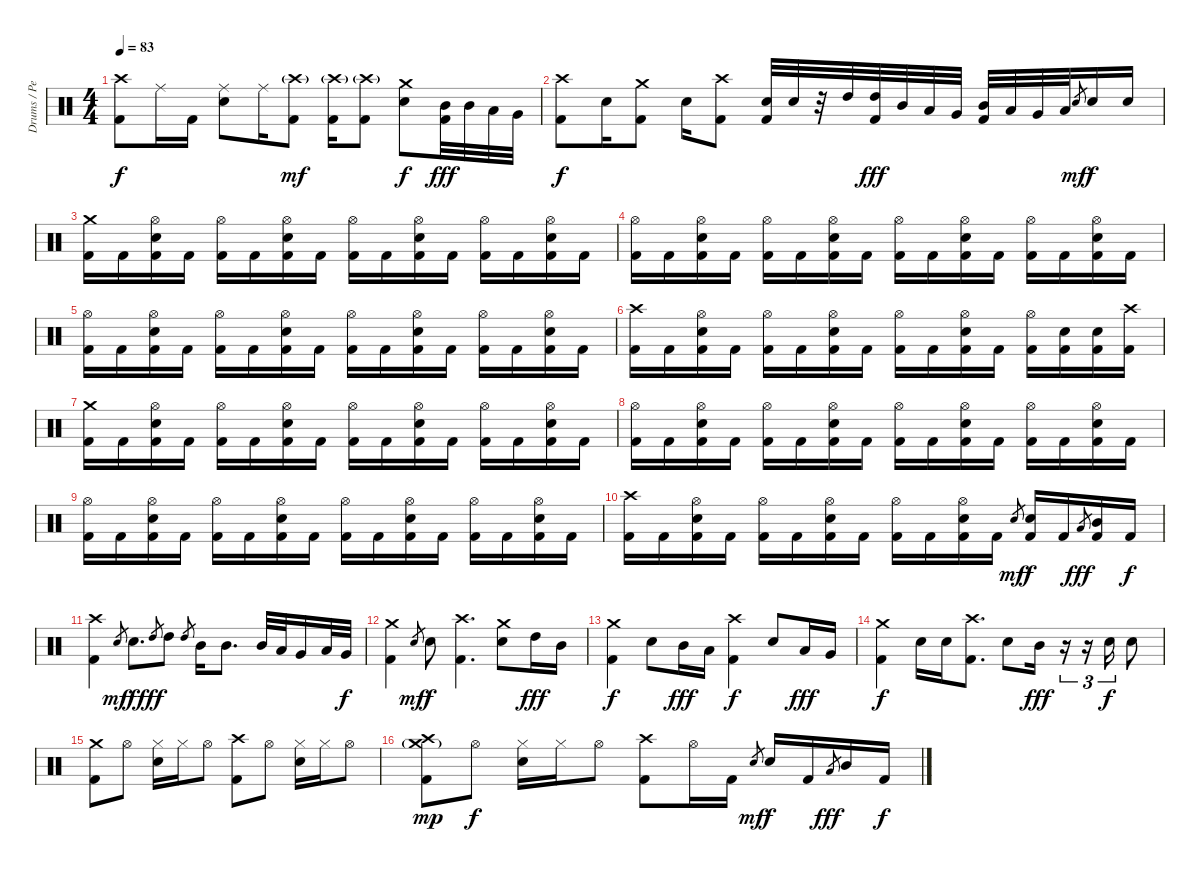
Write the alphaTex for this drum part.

\track ("Drums / Percussion" "Drums / Pe") {instrument percussion}
\staff {score}
\articulation defaults
\ts (4 4)
\tempo 83
\clef neutral
\ks c
("Crash high (hit)" "Kick (hit) 2").8{dy f} "Ride (middle)".16 "Kick (hit) 2".16 ("Ride (middle)" "Snare (hit) 2").8 "Ride (middle)".16 ("Crash high (hit)"{g} "Kick (hit) 2").8{dy mf} ("Crash high (hit)"{g} "Kick (hit) 2").16 ("Crash high (hit)"{g} "Kick (hit) 2").8 ("Crash medium (hit)" "Snare (hit) 2").8{dy f} ("Mid Tom (hit)" "Kick (hit) 2").32{dy fff} "Mid Tom (hit)".32 "Low Tom (hit)".32 "Very Low Tom (hit)".32 |
("Crash high (hit)" "Kick (hit) 2").8{dy f} "Snare (hit) 2".16 ("Crash medium (hit)" "Kick (hit) 2").8 "Snare (hit) 2".16 ("Crash high (hit)" "Kick (hit) 2").8 ("Snare (hit) 2" "Kick (hit) 2").32 "Snare (hit) 2".32 r.32 "High Tom (hit)".32 ("High Tom (hit)" "Kick (hit) 2").32{dy fff} "Mid Tom (hit)".32 "Low Tom (hit)".32 "Very Low Tom (hit)".32 ("Mid Tom (hit)" "Kick (hit) 2").32 "Low Tom (hit)".32 "Very Low Tom (hit)".32 "Low Floor Tom (hit)".32 "Snare (hit) 2".8{gr dy mf} "Snare (hit) 2".16{dy f} "Snare (hit) 2".16 |
\section ("" "")
("Crash medium (hit)" "Kick (hit) 2").16 "Kick (hit) 2".16 ("Hi-Hat (open)" "Snare (hit) 2" "Kick (hit) 2").16 "Kick (hit) 2".16 ("Hi-Hat (open)" "Kick (hit) 2").16 "Kick (hit) 2".16 ("Hi-Hat (open)" "Snare (hit) 2" "Kick (hit) 2").16 "Kick (hit) 2".16 ("Hi-Hat (open)" "Kick (hit) 2").16 "Kick (hit) 2".16 ("Hi-Hat (open)" "Snare (hit) 2" "Kick (hit) 2").16 "Kick (hit) 2".16 ("Hi-Hat (open)" "Kick (hit) 2").16 "Kick (hit) 2".16 ("Hi-Hat (open)" "Snare (hit) 2" "Kick (hit) 2").16 "Kick (hit) 2".16 |
("Hi-Hat (open)" "Kick (hit) 2").16 "Kick (hit) 2".16 ("Hi-Hat (open)" "Snare (hit) 2" "Kick (hit) 2").16 "Kick (hit) 2".16 ("Hi-Hat (open)" "Kick (hit) 2").16 "Kick (hit) 2".16 ("Hi-Hat (open)" "Snare (hit) 2" "Kick (hit) 2").16 "Kick (hit) 2".16 ("Hi-Hat (open)" "Kick (hit) 2").16 "Kick (hit) 2".16 ("Hi-Hat (open)" "Snare (hit) 2" "Kick (hit) 2").16 "Kick (hit) 2".16 ("Hi-Hat (open)" "Kick (hit) 2").16 "Kick (hit) 2".16 ("Hi-Hat (open)" "Snare (hit) 2" "Kick (hit) 2").16 "Kick (hit) 2".16 |
("Hi-Hat (open)" "Kick (hit) 2").16 "Kick (hit) 2".16 ("Hi-Hat (open)" "Snare (hit) 2" "Kick (hit) 2").16 "Kick (hit) 2".16 ("Hi-Hat (open)" "Kick (hit) 2").16 "Kick (hit) 2".16 ("Hi-Hat (open)" "Snare (hit) 2" "Kick (hit) 2").16 "Kick (hit) 2".16 ("Hi-Hat (open)" "Kick (hit) 2").16 "Kick (hit) 2".16 ("Hi-Hat (open)" "Snare (hit) 2" "Kick (hit) 2").16 "Kick (hit) 2".16 ("Hi-Hat (open)" "Kick (hit) 2").16 "Kick (hit) 2".16 ("Hi-Hat (open)" "Snare (hit) 2" "Kick (hit) 2").16 "Kick (hit) 2".16 |
("Crash high (hit)" "Kick (hit) 2").16 "Kick (hit) 2".16 ("Hi-Hat (open)" "Snare (hit) 2" "Kick (hit) 2").16 "Kick (hit) 2".16 ("Hi-Hat (open)" "Kick (hit) 2").16 "Kick (hit) 2".16 ("Hi-Hat (open)" "Snare (hit) 2" "Kick (hit) 2").16 "Kick (hit) 2".16 ("Hi-Hat (open)" "Kick (hit) 2").16 "Kick (hit) 2".16 ("Hi-Hat (open)" "Snare (hit) 2" "Kick (hit) 2").16 "Kick (hit) 2".16 ("Hi-Hat (open)" "Kick (hit) 2").16 ("Snare (hit) 2" "Kick (hit) 2").16 ("Snare (hit) 2" "Kick (hit) 2").16 ("Crash high (hit)" "Kick (hit) 2").16 |
("Crash medium (hit)" "Kick (hit) 2").16 "Kick (hit) 2".16 ("Hi-Hat (open)" "Snare (hit) 2" "Kick (hit) 2").16 "Kick (hit) 2".16 ("Hi-Hat (open)" "Kick (hit) 2").16 "Kick (hit) 2".16 ("Hi-Hat (open)" "Snare (hit) 2" "Kick (hit) 2").16 "Kick (hit) 2".16 ("Hi-Hat (open)" "Kick (hit) 2").16 "Kick (hit) 2".16 ("Hi-Hat (open)" "Snare (hit) 2" "Kick (hit) 2").16 "Kick (hit) 2".16 ("Hi-Hat (open)" "Kick (hit) 2").16 "Kick (hit) 2".16 ("Hi-Hat (open)" "Snare (hit) 2" "Kick (hit) 2").16 "Kick (hit) 2".16 |
("Hi-Hat (open)" "Kick (hit) 2").16 "Kick (hit) 2".16 ("Hi-Hat (open)" "Snare (hit) 2" "Kick (hit) 2").16 "Kick (hit) 2".16 ("Hi-Hat (open)" "Kick (hit) 2").16 "Kick (hit) 2".16 ("Hi-Hat (open)" "Snare (hit) 2" "Kick (hit) 2").16 "Kick (hit) 2".16 ("Hi-Hat (open)" "Kick (hit) 2").16 "Kick (hit) 2".16 ("Hi-Hat (open)" "Snare (hit) 2" "Kick (hit) 2").16 "Kick (hit) 2".16 ("Hi-Hat (open)" "Kick (hit) 2").16 "Kick (hit) 2".16 ("Hi-Hat (open)" "Snare (hit) 2" "Kick (hit) 2").16 "Kick (hit) 2".16 |
("Hi-Hat (open)" "Kick (hit) 2").16 "Kick (hit) 2".16 ("Hi-Hat (open)" "Snare (hit) 2" "Kick (hit) 2").16 "Kick (hit) 2".16 ("Hi-Hat (open)" "Kick (hit) 2").16 "Kick (hit) 2".16 ("Hi-Hat (open)" "Snare (hit) 2" "Kick (hit) 2").16 "Kick (hit) 2".16 ("Hi-Hat (open)" "Kick (hit) 2").16 "Kick (hit) 2".16 ("Hi-Hat (open)" "Snare (hit) 2" "Kick (hit) 2").16 "Kick (hit) 2".16 ("Hi-Hat (open)" "Kick (hit) 2").16 "Kick (hit) 2".16 ("Hi-Hat (open)" "Snare (hit) 2" "Kick (hit) 2").16 "Kick (hit) 2".16 |
("Crash high (hit)" "Kick (hit) 2").16 "Kick (hit) 2".16 ("Hi-Hat (open)" "Snare (hit) 2" "Kick (hit) 2").16 "Kick (hit) 2".16 ("Hi-Hat (open)" "Kick (hit) 2").16 "Kick (hit) 2".16 ("Hi-Hat (open)" "Snare (hit) 2" "Kick (hit) 2").16 "Kick (hit) 2".16 ("Hi-Hat (open)" "Kick (hit) 2").16 "Kick (hit) 2".16 ("Hi-Hat (open)" "Snare (hit) 2" "Kick (hit) 2").16 "Kick (hit) 2".16 "Snare (hit) 2".8{gr dy mf} ("Snare (hit) 2" "Kick (hit) 2").16{dy f} "Kick (hit) 2".16 "Low Tom (hit)".8{gr dy fff} ("Mid Tom (hit)" "Kick (hit) 2").16 "Kick (hit) 2".16{dy f} |
\section ("" "")
("Crash high (hit)" "Kick (hit) 2").4 "Snare (hit) 2".8{gr dy mf} "Snare (hit) 2".8{d dy f} "High Tom (hit)".8{gr dy fff} "High Tom (hit)".8 "High Tom (hit)".8{gr} "Mid Tom (hit)".16 "Mid Tom (hit)".8{d} "Mid Tom (hit)".32 "Low Tom (hit)".32 "Very Low Tom (hit)".16 "Low Tom (hit)".32 "Very Low Tom (hit)".32{dy f} |
("Crash medium (hit)" "Kick (hit) 2").4 "Snare (hit) 2".8{gr dy mf} "Snare (hit) 2".8{dy f} ("Crash high (hit)" "Kick (hit) 2").4{d} ("Crash medium (hit)" "Snare (hit) 2").8 "High Tom (hit)".16{dy fff} "Mid Tom (hit)".16 |
("Crash medium (hit)" "Kick (hit) 2").4{dy f} "Snare (hit) 2".8 "Mid Tom (hit)".16{dy fff} "Low Tom (hit)".16 ("Crash high (hit)" "Kick (hit) 2").4{dy f} "Snare (hit) 2".8 "Low Tom (hit)".16{dy fff} "Very Low Tom (hit)".16 |
("Crash medium (hit)" "Kick (hit) 2").4{dy f} "Snare (hit) 2".16 "Snare (hit) 2".16 ("Crash high (hit)" "Kick (hit) 2").8{d} "Snare (hit) 2".8 "Mid Tom (hit)".16{dy fff} r.16{tu (3 2)} r.16{tu (3 2)} "Snare (hit) 2".16{tu (3 2) dy f} "Snare (hit) 2".8 |
("Crash medium (hit)" "Kick (hit) 2").8 "Hi-Hat (open)".8 ("Hi-Hat (closed)" "Snare (hit) 2").16 "Hi-Hat (closed)".16 "Hi-Hat (open)".8 ("Crash high (hit)" "Kick (hit) 2").8 "Hi-Hat (open)".8 ("Hi-Hat (closed)" "Snare (hit) 2").16 "Hi-Hat (closed)".16 "Hi-Hat (open)".8 |
("Crash medium (hit)"{g} "Crash high (hit)" "Kick (hit) 2").8{dy mp} "Hi-Hat (open)".8{dy f} ("Hi-Hat (closed)" "Snare (hit) 2").16 "Hi-Hat (closed)".16 "Hi-Hat (open)".8 ("Crash high (hit)" "Kick (hit) 2").8 "Hi-Hat (open)".16 "Kick (hit) 2".16 "Snare (hit) 2".8{gr dy mf} "Snare (hit) 2".16{dy f} "Kick (hit) 2".16 "Low Tom (hit)".8{gr dy fff} "Mid Tom (hit)".16 "Kick (hit) 2".16{dy f}
